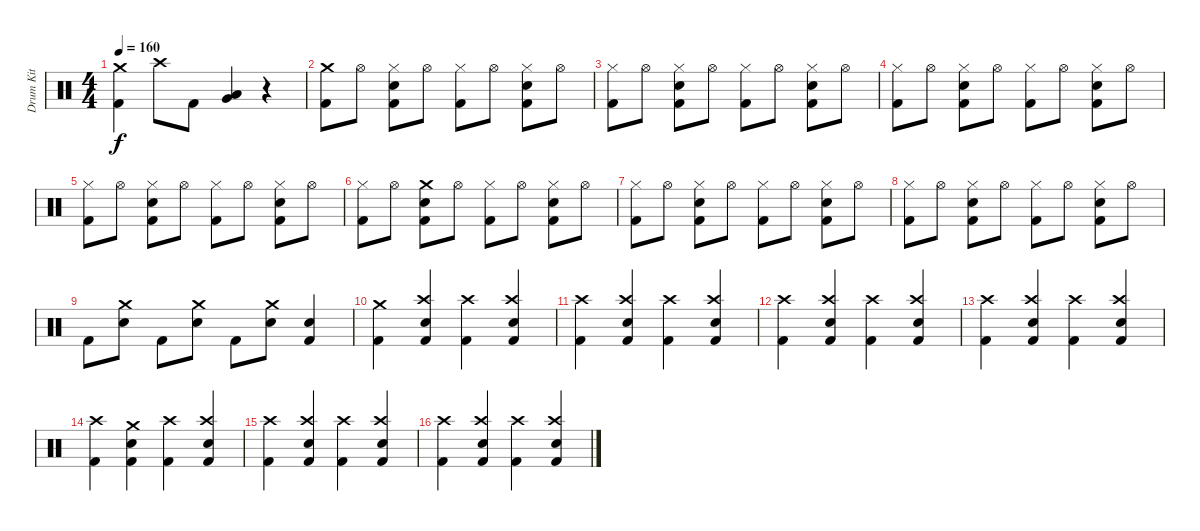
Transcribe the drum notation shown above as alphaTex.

\track ("Drum Kit" "Drum Kit") {instrument percussion}
\staff {score}
\articulation defaults
\ts (4 4)
\tempo 160
\clef neutral
\ks c
("Crash medium (hit)" "Kick (hit) 2").4{dy f} "Crash high (hit)".8 "Kick (hit) 2".8 ("Low Floor Tom (hit)" "Very Low Tom (hit)").4 r.4 |
("Crash medium (hit)" "Kick (hit) 2").8 "Hi-Hat (open)".8 ("Hi-Hat (closed)" "Electric Snare (hit)" "Kick (hit) 2").8 "Hi-Hat (open)".8 ("Hi-Hat (closed)" "Kick (hit) 2").8 "Hi-Hat (open)".8 ("Hi-Hat (closed)" "Electric Snare (hit)" "Kick (hit) 2").8 "Hi-Hat (open)".8 |
("Hi-Hat (closed)" "Kick (hit) 2").8 "Hi-Hat (open)".8 ("Hi-Hat (closed)" "Electric Snare (hit)" "Kick (hit) 2").8 "Hi-Hat (open)".8 ("Hi-Hat (closed)" "Kick (hit) 2").8 "Hi-Hat (open)".8 ("Hi-Hat (closed)" "Electric Snare (hit)" "Kick (hit) 2").8 "Hi-Hat (open)".8 |
("Hi-Hat (closed)" "Kick (hit) 2").8 "Hi-Hat (open)".8 ("Hi-Hat (closed)" "Electric Snare (hit)" "Kick (hit) 2").8 "Hi-Hat (open)".8 ("Hi-Hat (closed)" "Kick (hit) 2").8 "Hi-Hat (open)".8 ("Hi-Hat (closed)" "Electric Snare (hit)" "Kick (hit) 2").8 "Hi-Hat (open)".8 |
("Hi-Hat (closed)" "Kick (hit) 2").8 "Hi-Hat (open)".8 ("Hi-Hat (closed)" "Electric Snare (hit)" "Kick (hit) 2").8 "Hi-Hat (open)".8 ("Hi-Hat (closed)" "Kick (hit) 2").8 "Hi-Hat (open)".8 ("Hi-Hat (closed)" "Electric Snare (hit)" "Kick (hit) 2").8 "Hi-Hat (open)".8 |
("Hi-Hat (closed)" "Kick (hit) 2").8 "Hi-Hat (open)".8 ("Crash medium (hit)" "Electric Snare (hit)" "Kick (hit) 2").8 "Hi-Hat (open)".8 ("Hi-Hat (closed)" "Kick (hit) 2").8 "Hi-Hat (open)".8 ("Hi-Hat (closed)" "Electric Snare (hit)" "Kick (hit) 2").8 "Hi-Hat (open)".8 |
("Hi-Hat (closed)" "Kick (hit) 2").8 "Hi-Hat (open)".8 ("Hi-Hat (closed)" "Electric Snare (hit)" "Kick (hit) 2").8 "Hi-Hat (open)".8 ("Hi-Hat (closed)" "Kick (hit) 2").8 "Hi-Hat (open)".8 ("Hi-Hat (closed)" "Electric Snare (hit)" "Kick (hit) 2").8 "Hi-Hat (open)".8 |
("Hi-Hat (closed)" "Kick (hit) 2").8 "Hi-Hat (open)".8 ("Hi-Hat (closed)" "Electric Snare (hit)" "Kick (hit) 2").8 "Hi-Hat (open)".8 ("Hi-Hat (closed)" "Kick (hit) 2").8 "Hi-Hat (open)".8 ("Hi-Hat (closed)" "Electric Snare (hit)" "Kick (hit) 2").8 "Hi-Hat (open)".8 |
"Kick (hit) 2".8 ("Crash medium (hit)" "Electric Snare (hit)").8 "Kick (hit) 2".8 ("Crash medium (hit)" "Electric Snare (hit)").8 "Kick (hit) 2".8 ("Crash medium (hit)" "Electric Snare (hit)").8 ("Electric Snare (hit)" "Kick (hit) 2").4 |
("Crash medium (hit)" "Kick (hit) 2").4 ("Crash high (hit)" "Electric Snare (hit)" "Kick (hit) 2").4 ("Crash high (hit)" "Kick (hit) 2").4 ("Crash high (hit)" "Electric Snare (hit)" "Kick (hit) 2").4 |
("Crash high (hit)" "Kick (hit) 2").4 ("Crash high (hit)" "Electric Snare (hit)" "Kick (hit) 2").4 ("Crash high (hit)" "Kick (hit) 2").4 ("Crash high (hit)" "Electric Snare (hit)" "Kick (hit) 2").4 |
("Crash high (hit)" "Kick (hit) 2").4 ("Crash high (hit)" "Electric Snare (hit)" "Kick (hit) 2").4 ("Crash high (hit)" "Kick (hit) 2").4 ("Crash high (hit)" "Electric Snare (hit)" "Kick (hit) 2").4 |
("Crash high (hit)" "Kick (hit) 2").4 ("Crash high (hit)" "Electric Snare (hit)" "Kick (hit) 2").4 ("Crash high (hit)" "Kick (hit) 2").4 ("Crash high (hit)" "Electric Snare (hit)" "Kick (hit) 2").4 |
("Crash high (hit)" "Kick (hit) 2").4 ("Crash medium (hit)" "Electric Snare (hit)" "Kick (hit) 2").4 ("Crash high (hit)" "Kick (hit) 2").4 ("Crash high (hit)" "Electric Snare (hit)" "Kick (hit) 2").4 |
("Crash high (hit)" "Kick (hit) 2").4 ("Crash high (hit)" "Electric Snare (hit)" "Kick (hit) 2").4 ("Crash high (hit)" "Kick (hit) 2").4 ("Crash high (hit)" "Electric Snare (hit)" "Kick (hit) 2").4 |
("Crash high (hit)" "Kick (hit) 2").4 ("Crash high (hit)" "Electric Snare (hit)" "Kick (hit) 2").4 ("Crash high (hit)" "Kick (hit) 2").4 ("Crash high (hit)" "Electric Snare (hit)" "Kick (hit) 2").4
